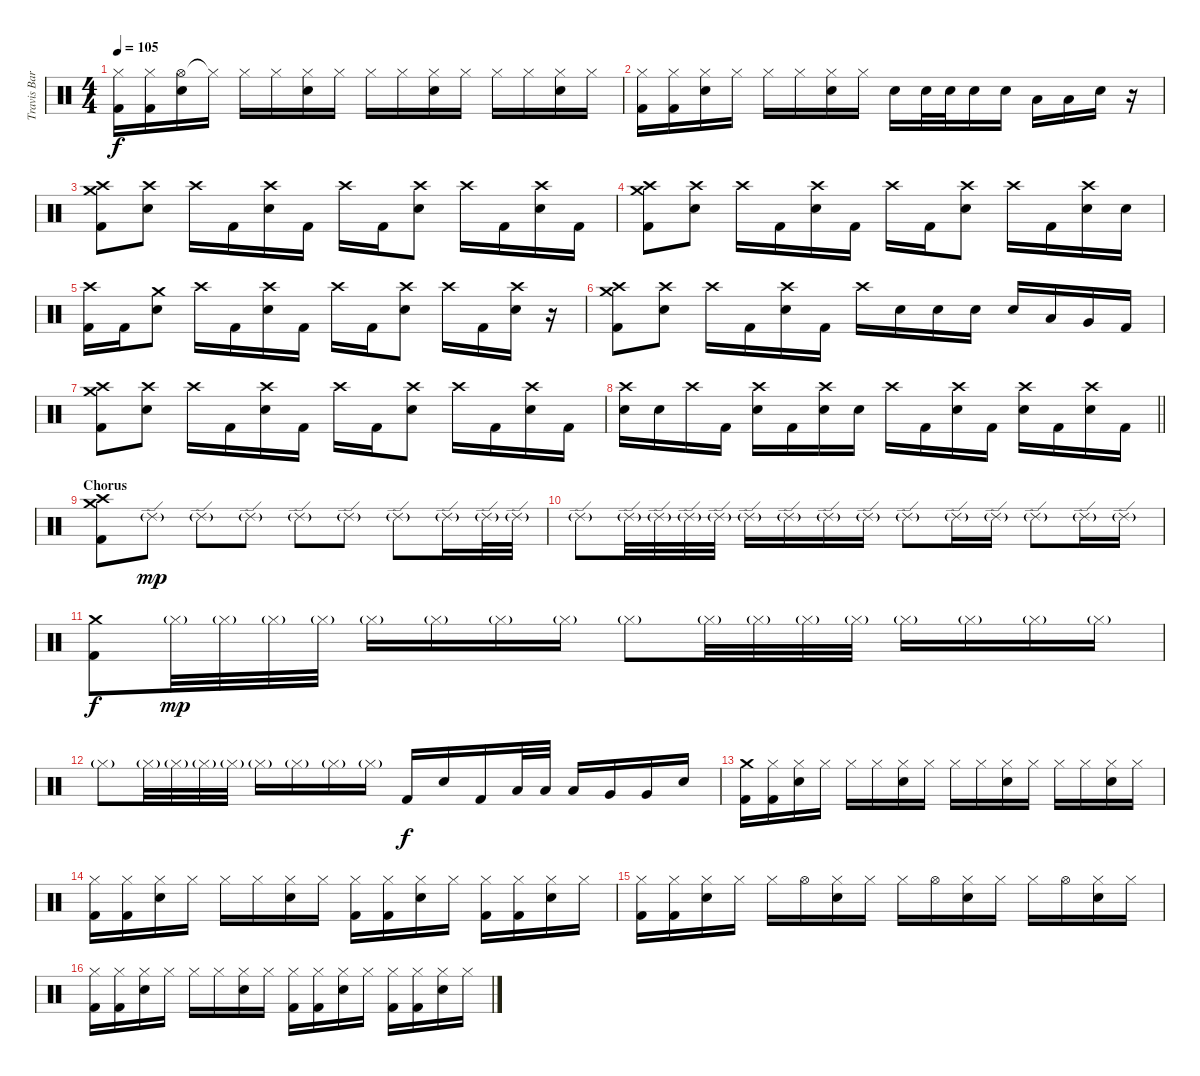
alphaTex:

\track ("Travis Barker" "Travis Bar") {instrument percussion}
\staff {score}
\articulation defaults
\ts (4 4)
\tempo 105
\clef neutral
\ks c
("Hi-Hat (closed)" "Kick (hit) 2").16{dy f} ("Hi-Hat (closed)" "Kick (hit) 2").16 ("Hi-Hat (open)" "Electric Snare (hit)").16 "Hi-Hat (closed)"{t}.16 "Hi-Hat (closed)".16 "Hi-Hat (closed)".16 ("Hi-Hat (closed)" "Electric Snare (hit)").16 "Hi-Hat (closed)".16 "Hi-Hat (closed)".16 "Hi-Hat (closed)".16 ("Hi-Hat (closed)" "Electric Snare (hit)").16 "Hi-Hat (closed)".16 "Hi-Hat (closed)".16 "Hi-Hat (closed)".16 ("Hi-Hat (closed)" "Electric Snare (hit)").16 "Hi-Hat (closed)".16 |
("Hi-Hat (closed)" "Kick (hit) 2").16 ("Hi-Hat (closed)" "Kick (hit) 2").16 ("Hi-Hat (closed)" "Electric Snare (hit)").16 "Hi-Hat (closed)".16 "Hi-Hat (closed)".16 "Hi-Hat (closed)".16 ("Hi-Hat (closed)" "Electric Snare (hit)").16 "Hi-Hat (closed)".16 "Electric Snare (hit)".16 "Electric Snare (hit)".32 "Electric Snare (hit)".32 "Electric Snare (hit)".16 "Electric Snare (hit)".16 "Low Tom (hit)".16 "Low Tom (hit)".16 "Electric Snare (hit)".16 r.16 |
("Crash medium (hit)" "Crash high (hit)" "Kick (hit) 2").8 ("Crash high (hit)" "Electric Snare (hit)").8 "Crash high (hit)".16 "Kick (hit) 2".16 ("Crash high (hit)" "Electric Snare (hit)").16 "Kick (hit) 2".16 "Crash high (hit)".16 "Kick (hit) 2".16 ("Crash high (hit)" "Electric Snare (hit)").8 "Crash high (hit)".16 "Kick (hit) 2".16 ("Crash high (hit)" "Electric Snare (hit)").16 "Kick (hit) 2".16 |
("Crash medium (hit)" "Crash high (hit)" "Kick (hit) 2").8 ("Crash high (hit)" "Electric Snare (hit)").8 "Crash high (hit)".16 "Kick (hit) 2".16 ("Crash high (hit)" "Electric Snare (hit)").16 "Kick (hit) 2".16 "Crash high (hit)".16 "Kick (hit) 2".16 ("Crash high (hit)" "Electric Snare (hit)").8 "Crash high (hit)".16 "Kick (hit) 2".16 ("Crash high (hit)" "Electric Snare (hit)").16 "Electric Snare (hit)".16 |
("Crash high (hit)" "Kick (hit) 2").16 "Kick (hit) 2".16 ("Crash medium (hit)" "Electric Snare (hit)").8 "Crash high (hit)".16 "Kick (hit) 2".16 ("Crash high (hit)" "Electric Snare (hit)").16 "Kick (hit) 2".16 "Crash high (hit)".16 "Kick (hit) 2".16 ("Crash high (hit)" "Electric Snare (hit)").8 "Crash high (hit)".16 "Kick (hit) 2".16 ("Crash high (hit)" "Electric Snare (hit)").16 r.16 |
("Crash medium (hit)" "Crash high (hit)" "Kick (hit) 2").8 ("Crash high (hit)" "Electric Snare (hit)").8 "Crash high (hit)".16 "Kick (hit) 2".16 ("Crash high (hit)" "Electric Snare (hit)").16 "Kick (hit) 2".16 "Crash high (hit)".16 "Electric Snare (hit)".16 "Electric Snare (hit)".16 "Electric Snare (hit)".16 "Electric Snare (hit)".16 "Low Tom (hit)".16 "Very Low Tom (hit)".16 "Kick (hit) 2".16 |
("Crash medium (hit)" "Crash high (hit)" "Kick (hit) 2").8 ("Crash high (hit)" "Electric Snare (hit)").8 "Crash high (hit)".16 "Kick (hit) 2".16 ("Crash high (hit)" "Electric Snare (hit)").16 "Kick (hit) 2".16 "Crash high (hit)".16 "Kick (hit) 2".16 ("Crash high (hit)" "Electric Snare (hit)").8 "Crash high (hit)".16 "Kick (hit) 2".16 ("Crash high (hit)" "Electric Snare (hit)").16 "Kick (hit) 2".16 |
\barLineRight lightlight
("Crash high (hit)" "Electric Snare (hit)").16 "Electric Snare (hit)".16 "Crash high (hit)".16 "Kick (hit) 2".16 ("Crash high (hit)" "Electric Snare (hit)").16 "Kick (hit) 2".16 ("Crash high (hit)" "Electric Snare (hit)").16 "Electric Snare (hit)".16 "Crash high (hit)".16 "Kick (hit) 2".16 ("Crash high (hit)" "Electric Snare (hit)").16 "Kick (hit) 2".16 ("Crash high (hit)" "Electric Snare (hit)").16 "Kick (hit) 2".16 ("Crash high (hit)" "Electric Snare (hit)").16 "Kick (hit) 2".16 |
\section ("" "Chorus")
("Crash medium (hit)" "Crash high (hit)" "Kick (hit) 2").8 "Ride (edge) 2"{g}.8{dy mp} "Ride (edge) 2"{g}.8 "Ride (edge) 2"{g}.8 "Ride (edge) 2"{g}.8 "Ride (edge) 2"{g}.8 "Ride (edge) 2"{g}.8 "Ride (edge) 2"{g}.16 "Ride (edge) 2"{g}.32 "Ride (edge) 2"{g}.32 |
"Ride (edge) 2"{g}.8 "Ride (edge) 2"{g}.32 "Ride (edge) 2"{g}.32 "Ride (edge) 2"{g}.32 "Ride (edge) 2"{g}.32 "Ride (edge) 2"{g}.16 "Ride (edge) 2"{g}.16 "Ride (edge) 2"{g}.16 "Ride (edge) 2"{g}.16 "Ride (edge) 2"{g}.8 "Ride (edge) 2"{g}.16 "Ride (edge) 2"{g}.16 "Ride (edge) 2"{g}.8 "Ride (edge) 2"{g}.16 "Ride (edge) 2"{g}.16 |
("Crash medium (hit)" "Kick (hit) 2").8{dy f} "Hi-Hat (closed)"{g}.32{dy mp} "Hi-Hat (closed)"{g}.32 "Hi-Hat (closed)"{g}.32 "Hi-Hat (closed)"{g}.32 "Hi-Hat (closed)"{g}.16 "Hi-Hat (closed)"{g}.16 "Hi-Hat (closed)"{g}.16 "Hi-Hat (closed)"{g}.16 "Hi-Hat (closed)"{g}.8 "Hi-Hat (closed)"{g}.32 "Hi-Hat (closed)"{g}.32 "Hi-Hat (closed)"{g}.32 "Hi-Hat (closed)"{g}.32 "Hi-Hat (closed)"{g}.16 "Hi-Hat (closed)"{g}.16 "Hi-Hat (closed)"{g}.16 "Hi-Hat (closed)"{g}.16 |
"Hi-Hat (closed)"{g}.8 "Hi-Hat (closed)"{g}.32 "Hi-Hat (closed)"{g}.32 "Hi-Hat (closed)"{g}.32 "Hi-Hat (closed)"{g}.32 "Hi-Hat (closed)"{g}.16 "Hi-Hat (closed)"{g}.16 "Hi-Hat (closed)"{g}.16 "Hi-Hat (closed)"{g}.16 "Kick (hit) 2".16{dy f} "Electric Snare (hit)".16 "Kick (hit) 2".16 "Low Tom (hit)".32 "Low Tom (hit)".32 "Low Tom (hit)".16 "Very Low Tom (hit)".16 "Very Low Tom (hit)".16 "Electric Snare (hit)".16 |
("Crash medium (hit)" "Kick (hit) 2").16 ("Hi-Hat (closed)" "Kick (hit) 2").16 ("Hi-Hat (closed)" "Electric Snare (hit)").16 "Hi-Hat (closed)".16 "Hi-Hat (closed)".16 "Hi-Hat (closed)".16 ("Hi-Hat (closed)" "Electric Snare (hit)").16 "Hi-Hat (closed)".16 "Hi-Hat (closed)".16 "Hi-Hat (closed)".16 ("Hi-Hat (closed)" "Electric Snare (hit)").16 "Hi-Hat (closed)".16 "Hi-Hat (closed)".16 "Hi-Hat (closed)".16 ("Hi-Hat (closed)" "Electric Snare (hit)").16 "Hi-Hat (closed)".16 |
("Hi-Hat (closed)" "Kick (hit) 2").16 ("Hi-Hat (closed)" "Kick (hit) 2").16 ("Hi-Hat (closed)" "Electric Snare (hit)").16 "Hi-Hat (closed)".16 "Hi-Hat (closed)".16 "Hi-Hat (closed)".16 ("Hi-Hat (closed)" "Electric Snare (hit)").16 "Hi-Hat (closed)".16 ("Hi-Hat (closed)" "Kick (hit) 2").16 ("Hi-Hat (closed)" "Kick (hit) 2").16 ("Hi-Hat (closed)" "Electric Snare (hit)").16 "Hi-Hat (closed)".16 ("Hi-Hat (closed)" "Kick (hit) 2").16 ("Hi-Hat (closed)" "Kick (hit) 2").16 ("Hi-Hat (closed)" "Electric Snare (hit)").16 "Hi-Hat (closed)".16 |
("Hi-Hat (closed)" "Kick (hit) 2").16 ("Hi-Hat (closed)" "Kick (hit) 2").16 ("Hi-Hat (closed)" "Electric Snare (hit)").16 "Hi-Hat (closed)".16 "Hi-Hat (closed)".16 "Hi-Hat (open)".16 ("Hi-Hat (closed)" "Electric Snare (hit)").16 "Hi-Hat (closed)".16 "Hi-Hat (closed)".16 "Hi-Hat (open)".16 ("Hi-Hat (closed)" "Electric Snare (hit)").16 "Hi-Hat (closed)".16 "Hi-Hat (closed)".16 "Hi-Hat (open)".16 ("Hi-Hat (closed)" "Electric Snare (hit)").16 "Hi-Hat (closed)".16 |
("Hi-Hat (closed)" "Kick (hit) 2").16 ("Hi-Hat (closed)" "Kick (hit) 2").16 ("Hi-Hat (closed)" "Electric Snare (hit)").16 "Hi-Hat (closed)".16 "Hi-Hat (closed)".16 "Hi-Hat (closed)".16 ("Hi-Hat (closed)" "Electric Snare (hit)").16 "Hi-Hat (closed)".16 ("Hi-Hat (closed)" "Kick (hit) 2").16 ("Hi-Hat (closed)" "Kick (hit) 2").16 ("Hi-Hat (closed)" "Electric Snare (hit)").16 "Hi-Hat (closed)".16 ("Hi-Hat (closed)" "Kick (hit) 2").16 ("Hi-Hat (closed)" "Kick (hit) 2").16 ("Hi-Hat (closed)" "Electric Snare (hit)").16 "Hi-Hat (closed)".16
